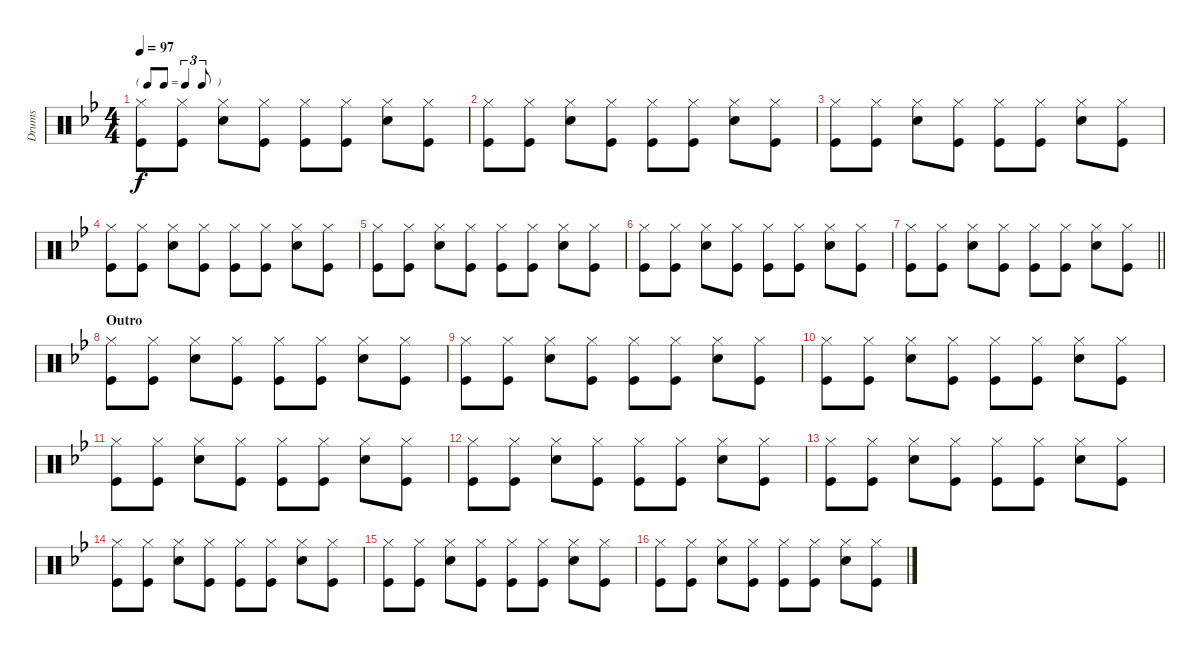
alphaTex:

\track ("Drums" "Drums") {instrument percussion}
\staff {score}
\articulation defaults
\ts (4 4)
\tf triplet8th
\tempo 97
\clef neutral
\ks bb
("Kick (hit)" "Hi-Hat (closed)").8{dy f} ("Kick (hit)" "Hi-Hat (closed)").8 ("Snare (hit) 2" "Hi-Hat (closed)").8 ("Kick (hit)" "Hi-Hat (closed)").8 ("Kick (hit)" "Hi-Hat (closed)").8 ("Kick (hit)" "Hi-Hat (closed)").8 ("Snare (hit) 2" "Hi-Hat (closed)").8 ("Kick (hit)" "Hi-Hat (closed)").8 |
("Kick (hit)" "Hi-Hat (closed)").8 ("Kick (hit)" "Hi-Hat (closed)").8 ("Snare (hit) 2" "Hi-Hat (closed)").8 ("Kick (hit)" "Hi-Hat (closed)").8 ("Kick (hit)" "Hi-Hat (closed)").8 ("Kick (hit)" "Hi-Hat (closed)").8 ("Snare (hit) 2" "Hi-Hat (closed)").8 ("Kick (hit)" "Hi-Hat (closed)").8 |
("Kick (hit)" "Hi-Hat (closed)").8 ("Kick (hit)" "Hi-Hat (closed)").8 ("Snare (hit) 2" "Hi-Hat (closed)").8 ("Kick (hit)" "Hi-Hat (closed)").8 ("Kick (hit)" "Hi-Hat (closed)").8 ("Kick (hit)" "Hi-Hat (closed)").8 ("Snare (hit) 2" "Hi-Hat (closed)").8 ("Kick (hit)" "Hi-Hat (closed)").8 |
("Kick (hit)" "Hi-Hat (closed)").8 ("Kick (hit)" "Hi-Hat (closed)").8 ("Snare (hit) 2" "Hi-Hat (closed)").8 ("Kick (hit)" "Hi-Hat (closed)").8 ("Kick (hit)" "Hi-Hat (closed)").8 ("Kick (hit)" "Hi-Hat (closed)").8 ("Snare (hit) 2" "Hi-Hat (closed)").8 ("Kick (hit)" "Hi-Hat (closed)").8 |
("Kick (hit)" "Hi-Hat (closed)").8 ("Kick (hit)" "Hi-Hat (closed)").8 ("Snare (hit) 2" "Hi-Hat (closed)").8 ("Kick (hit)" "Hi-Hat (closed)").8 ("Kick (hit)" "Hi-Hat (closed)").8 ("Kick (hit)" "Hi-Hat (closed)").8 ("Snare (hit) 2" "Hi-Hat (closed)").8 ("Kick (hit)" "Hi-Hat (closed)").8 |
("Kick (hit)" "Hi-Hat (closed)").8 ("Kick (hit)" "Hi-Hat (closed)").8 ("Snare (hit) 2" "Hi-Hat (closed)").8 ("Kick (hit)" "Hi-Hat (closed)").8 ("Kick (hit)" "Hi-Hat (closed)").8 ("Kick (hit)" "Hi-Hat (closed)").8 ("Snare (hit) 2" "Hi-Hat (closed)").8 ("Kick (hit)" "Hi-Hat (closed)").8 |
\barLineRight lightlight
("Kick (hit)" "Hi-Hat (closed)").8 ("Kick (hit)" "Hi-Hat (closed)").8 ("Snare (hit) 2" "Hi-Hat (closed)").8 ("Kick (hit)" "Hi-Hat (closed)").8 ("Kick (hit)" "Hi-Hat (closed)").8 ("Kick (hit)" "Hi-Hat (closed)").8 ("Snare (hit) 2" "Hi-Hat (closed)").8 ("Kick (hit)" "Hi-Hat (closed)").8 |
\section ("" "Outro")
("Kick (hit)" "Hi-Hat (closed)").8 ("Kick (hit)" "Hi-Hat (closed)").8 ("Snare (hit) 2" "Hi-Hat (closed)").8 ("Kick (hit)" "Hi-Hat (closed)").8 ("Kick (hit)" "Hi-Hat (closed)").8 ("Kick (hit)" "Hi-Hat (closed)").8 ("Snare (hit) 2" "Hi-Hat (closed)").8 ("Kick (hit)" "Hi-Hat (closed)").8 |
("Kick (hit)" "Hi-Hat (closed)").8 ("Kick (hit)" "Hi-Hat (closed)").8 ("Snare (hit) 2" "Hi-Hat (closed)").8 ("Kick (hit)" "Hi-Hat (closed)").8 ("Kick (hit)" "Hi-Hat (closed)").8 ("Kick (hit)" "Hi-Hat (closed)").8 ("Snare (hit) 2" "Hi-Hat (closed)").8 ("Kick (hit)" "Hi-Hat (closed)").8 |
("Kick (hit)" "Hi-Hat (closed)").8 ("Kick (hit)" "Hi-Hat (closed)").8 ("Snare (hit) 2" "Hi-Hat (closed)").8 ("Kick (hit)" "Hi-Hat (closed)").8 ("Kick (hit)" "Hi-Hat (closed)").8 ("Kick (hit)" "Hi-Hat (closed)").8 ("Snare (hit) 2" "Hi-Hat (closed)").8 ("Kick (hit)" "Hi-Hat (closed)").8 |
("Kick (hit)" "Hi-Hat (closed)").8 ("Kick (hit)" "Hi-Hat (closed)").8 ("Snare (hit) 2" "Hi-Hat (closed)").8 ("Kick (hit)" "Hi-Hat (closed)").8 ("Kick (hit)" "Hi-Hat (closed)").8 ("Kick (hit)" "Hi-Hat (closed)").8 ("Snare (hit) 2" "Hi-Hat (closed)").8 ("Kick (hit)" "Hi-Hat (closed)").8 |
("Kick (hit)" "Hi-Hat (closed)").8 ("Kick (hit)" "Hi-Hat (closed)").8 ("Snare (hit) 2" "Hi-Hat (closed)").8 ("Kick (hit)" "Hi-Hat (closed)").8 ("Kick (hit)" "Hi-Hat (closed)").8 ("Kick (hit)" "Hi-Hat (closed)").8 ("Snare (hit) 2" "Hi-Hat (closed)").8 ("Kick (hit)" "Hi-Hat (closed)").8 |
("Kick (hit)" "Hi-Hat (closed)").8 ("Kick (hit)" "Hi-Hat (closed)").8 ("Snare (hit) 2" "Hi-Hat (closed)").8 ("Kick (hit)" "Hi-Hat (closed)").8 ("Kick (hit)" "Hi-Hat (closed)").8 ("Kick (hit)" "Hi-Hat (closed)").8 ("Snare (hit) 2" "Hi-Hat (closed)").8 ("Kick (hit)" "Hi-Hat (closed)").8 |
("Kick (hit)" "Hi-Hat (closed)").8 ("Kick (hit)" "Hi-Hat (closed)").8 ("Snare (hit) 2" "Hi-Hat (closed)").8 ("Kick (hit)" "Hi-Hat (closed)").8 ("Kick (hit)" "Hi-Hat (closed)").8 ("Kick (hit)" "Hi-Hat (closed)").8 ("Snare (hit) 2" "Hi-Hat (closed)").8 ("Kick (hit)" "Hi-Hat (closed)").8 |
("Kick (hit)" "Hi-Hat (closed)").8 ("Kick (hit)" "Hi-Hat (closed)").8 ("Snare (hit) 2" "Hi-Hat (closed)").8 ("Kick (hit)" "Hi-Hat (closed)").8 ("Kick (hit)" "Hi-Hat (closed)").8 ("Kick (hit)" "Hi-Hat (closed)").8 ("Snare (hit) 2" "Hi-Hat (closed)").8 ("Kick (hit)" "Hi-Hat (closed)").8 |
("Kick (hit)" "Hi-Hat (closed)").8 ("Kick (hit)" "Hi-Hat (closed)").8 ("Snare (hit) 2" "Hi-Hat (closed)").8 ("Kick (hit)" "Hi-Hat (closed)").8 ("Kick (hit)" "Hi-Hat (closed)").8 ("Kick (hit)" "Hi-Hat (closed)").8 ("Snare (hit) 2" "Hi-Hat (closed)").8 ("Kick (hit)" "Hi-Hat (closed)").8
